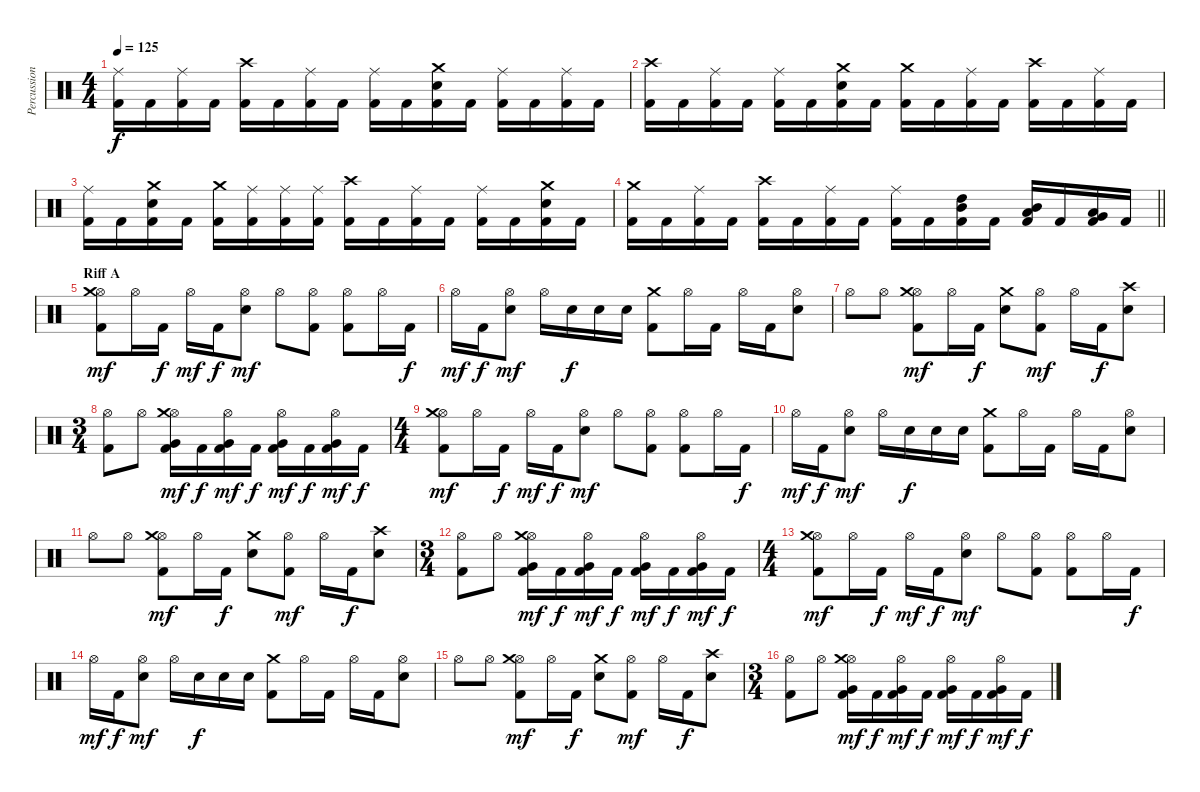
\track ("Percussion" "Percussion") {instrument percussion}
\staff {score}
\articulation defaults
\ts (4 4)
\tempo 125
\clef neutral
\ks c
("Kick (hit) 2" "Ride (middle)").16{dy f} "Kick (hit) 2".16 ("Kick (hit) 2" "Ride (middle)").16 "Kick (hit) 2".16 ("Kick (hit) 2" "Crash high (hit)").16 "Kick (hit) 2".16 ("Kick (hit) 2" "Ride (middle)").16 "Kick (hit) 2".16 ("Kick (hit) 2" "Ride (middle)").16 "Kick (hit) 2".16 ("Kick (hit) 2" "Snare (hit) 2" "Crash medium (hit)").16 "Kick (hit) 2".16 ("Kick (hit) 2" "Ride (middle)").16 "Kick (hit) 2".16 ("Kick (hit) 2" "Ride (middle)").16 "Kick (hit) 2".16 |
("Kick (hit) 2" "Crash high (hit)").16 "Kick (hit) 2".16 ("Kick (hit) 2" "Ride (middle)").16 "Kick (hit) 2".16 ("Kick (hit) 2" "Ride (middle)").16 "Kick (hit) 2".16 ("Kick (hit) 2" "Snare (hit) 2" "Crash medium (hit)").16 "Kick (hit) 2".16 ("Kick (hit) 2" "Crash medium (hit)").16 "Kick (hit) 2".16 ("Kick (hit) 2" "Ride (middle)").16 "Kick (hit) 2".16 ("Kick (hit) 2" "Crash high (hit)").16 "Kick (hit) 2".16 ("Kick (hit) 2" "Ride (middle)").16 "Kick (hit) 2".16 |
("Kick (hit) 2" "Ride (middle)").16 "Kick (hit) 2".16 ("Kick (hit) 2" "Snare (hit) 2" "Crash medium (hit)").16 "Kick (hit) 2".16 ("Kick (hit) 2" "Crash medium (hit)").16 ("Kick (hit) 2" "Ride (middle)").16 ("Kick (hit) 2" "Ride (middle)").16 ("Kick (hit) 2" "Ride (middle)").16 ("Kick (hit) 2" "Crash high (hit)").16 "Kick (hit) 2".16 ("Kick (hit) 2" "Ride (middle)").16 "Kick (hit) 2".16 ("Kick (hit) 2" "Ride (middle)").16 "Kick (hit) 2".16 ("Kick (hit) 2" "Snare (hit) 2" "Crash medium (hit)").16 "Kick (hit) 2".16 |
\barLineRight lightlight
("Kick (hit) 2" "Crash medium (hit)").16 "Kick (hit) 2".16 ("Kick (hit) 2" "Ride (middle)").16 "Kick (hit) 2".16 ("Kick (hit) 2" "Crash high (hit)").16 "Kick (hit) 2".16 ("Kick (hit) 2" "Ride (middle)").16 "Kick (hit) 2".16 ("Kick (hit) 2" "Ride (middle)").16 "Kick (hit) 2".16 ("Kick (hit) 2" "Mid Tom (hit)" "High Tom (hit)").16 "Kick (hit) 2".16 ("Kick (hit) 2" "Mid Tom (hit)" "Low Tom (hit)").16 "Kick (hit) 2".16 ("Kick (hit) 2" "Low Tom (hit)" "Very Low Tom (hit)").16 "Kick (hit) 2".16 |
\section ("" "Riff A")
("Kick (hit) 2" "Hi-Hat (open)" "Crash medium (hit)").8{dy mf} "Hi-Hat (open)".16 "Kick (hit) 2".16{dy f} "Hi-Hat (open)".16{dy mf} "Kick (hit) 2".16{dy f} ("Snare (hit) 2" "Hi-Hat (open)").8{dy mf} "Hi-Hat (open)".8 ("Kick (hit) 2" "Hi-Hat (open)").8 ("Kick (hit) 2" "Hi-Hat (open)").8 "Hi-Hat (open)".16 "Kick (hit) 2".16{dy f} |
"Hi-Hat (open)".16{dy mf} "Kick (hit) 2".16{dy f} ("Snare (hit) 2" "Hi-Hat (open)").8{dy mf} "Hi-Hat (open)".16 "Snare (hit) 2".16{dy f} "Snare (hit) 2".16 "Snare (hit) 2".16 ("Kick (hit) 2" "Crash medium (hit)").8 "Hi-Hat (open)".16 "Kick (hit) 2".16 "Hi-Hat (open)".16 "Kick (hit) 2".16 ("Snare (hit) 2" "Hi-Hat (open)").8 |
"Hi-Hat (open)".8 "Hi-Hat (open)".8 ("Kick (hit) 2" "Hi-Hat (open)" "Crash medium (hit)").8{dy mf} "Hi-Hat (open)".16 "Kick (hit) 2".16{dy f} ("Snare (hit) 2" "Crash medium (hit)").8 ("Kick (hit) 2" "Hi-Hat (open)").8{dy mf} "Hi-Hat (open)".16 "Kick (hit) 2".16{dy f} ("Snare (hit) 2" "Crash high (hit)").8 |
\ts (3 4)
("Kick (hit) 2" "Hi-Hat (open)").8 "Hi-Hat (open)".8 ("Kick (hit) 2" "Very Low Tom (hit)" "Hi-Hat (open)" "Crash medium (hit)").16{dy mf} "Kick (hit) 2".16{dy f} ("Kick (hit) 2" "Very Low Tom (hit)" "Hi-Hat (open)").16{dy mf} "Kick (hit) 2".16{dy f} ("Kick (hit) 2" "Very Low Tom (hit)" "Hi-Hat (open)").16{dy mf} "Kick (hit) 2".16{dy f} ("Kick (hit) 2" "Very Low Tom (hit)" "Hi-Hat (open)").16{dy mf} "Kick (hit) 2".16{dy f} |
\ts (4 4)
("Kick (hit) 2" "Hi-Hat (open)" "Crash medium (hit)").8{dy mf} "Hi-Hat (open)".16 "Kick (hit) 2".16{dy f} "Hi-Hat (open)".16{dy mf} "Kick (hit) 2".16{dy f} ("Snare (hit) 2" "Hi-Hat (open)").8{dy mf} "Hi-Hat (open)".8 ("Kick (hit) 2" "Hi-Hat (open)").8 ("Kick (hit) 2" "Hi-Hat (open)").8 "Hi-Hat (open)".16 "Kick (hit) 2".16{dy f} |
"Hi-Hat (open)".16{dy mf} "Kick (hit) 2".16{dy f} ("Snare (hit) 2" "Hi-Hat (open)").8{dy mf} "Hi-Hat (open)".16 "Snare (hit) 2".16{dy f} "Snare (hit) 2".16 "Snare (hit) 2".16 ("Kick (hit) 2" "Crash medium (hit)").8 "Hi-Hat (open)".16 "Kick (hit) 2".16 "Hi-Hat (open)".16 "Kick (hit) 2".16 ("Snare (hit) 2" "Hi-Hat (open)").8 |
"Hi-Hat (open)".8 "Hi-Hat (open)".8 ("Kick (hit) 2" "Hi-Hat (open)" "Crash medium (hit)").8{dy mf} "Hi-Hat (open)".16 "Kick (hit) 2".16{dy f} ("Snare (hit) 2" "Crash medium (hit)").8 ("Kick (hit) 2" "Hi-Hat (open)").8{dy mf} "Hi-Hat (open)".16 "Kick (hit) 2".16{dy f} ("Snare (hit) 2" "Crash high (hit)").8 |
\ts (3 4)
("Kick (hit) 2" "Hi-Hat (open)").8 "Hi-Hat (open)".8 ("Kick (hit) 2" "Very Low Tom (hit)" "Hi-Hat (open)" "Crash medium (hit)").16{dy mf} "Kick (hit) 2".16{dy f} ("Kick (hit) 2" "Very Low Tom (hit)" "Hi-Hat (open)").16{dy mf} "Kick (hit) 2".16{dy f} ("Kick (hit) 2" "Very Low Tom (hit)" "Hi-Hat (open)").16{dy mf} "Kick (hit) 2".16{dy f} ("Kick (hit) 2" "Very Low Tom (hit)" "Hi-Hat (open)").16{dy mf} "Kick (hit) 2".16{dy f} |
\ts (4 4)
("Kick (hit) 2" "Hi-Hat (open)" "Crash medium (hit)").8{dy mf} "Hi-Hat (open)".16 "Kick (hit) 2".16{dy f} "Hi-Hat (open)".16{dy mf} "Kick (hit) 2".16{dy f} ("Snare (hit) 2" "Hi-Hat (open)").8{dy mf} "Hi-Hat (open)".8 ("Kick (hit) 2" "Hi-Hat (open)").8 ("Kick (hit) 2" "Hi-Hat (open)").8 "Hi-Hat (open)".16 "Kick (hit) 2".16{dy f} |
"Hi-Hat (open)".16{dy mf} "Kick (hit) 2".16{dy f} ("Snare (hit) 2" "Hi-Hat (open)").8{dy mf} "Hi-Hat (open)".16 "Snare (hit) 2".16{dy f} "Snare (hit) 2".16 "Snare (hit) 2".16 ("Kick (hit) 2" "Crash medium (hit)").8 "Hi-Hat (open)".16 "Kick (hit) 2".16 "Hi-Hat (open)".16 "Kick (hit) 2".16 ("Snare (hit) 2" "Hi-Hat (open)").8 |
"Hi-Hat (open)".8 "Hi-Hat (open)".8 ("Kick (hit) 2" "Hi-Hat (open)" "Crash medium (hit)").8{dy mf} "Hi-Hat (open)".16 "Kick (hit) 2".16{dy f} ("Snare (hit) 2" "Crash medium (hit)").8 ("Kick (hit) 2" "Hi-Hat (open)").8{dy mf} "Hi-Hat (open)".16 "Kick (hit) 2".16{dy f} ("Snare (hit) 2" "Crash high (hit)").8 |
\ts (3 4)
("Kick (hit) 2" "Hi-Hat (open)").8 "Hi-Hat (open)".8 ("Kick (hit) 2" "Very Low Tom (hit)" "Hi-Hat (open)" "Crash medium (hit)").16{dy mf} "Kick (hit) 2".16{dy f} ("Kick (hit) 2" "Very Low Tom (hit)" "Hi-Hat (open)").16{dy mf} "Kick (hit) 2".16{dy f} ("Kick (hit) 2" "Very Low Tom (hit)" "Hi-Hat (open)").16{dy mf} "Kick (hit) 2".16{dy f} ("Kick (hit) 2" "Very Low Tom (hit)" "Hi-Hat (open)").16{dy mf} "Kick (hit) 2".16{dy f}
